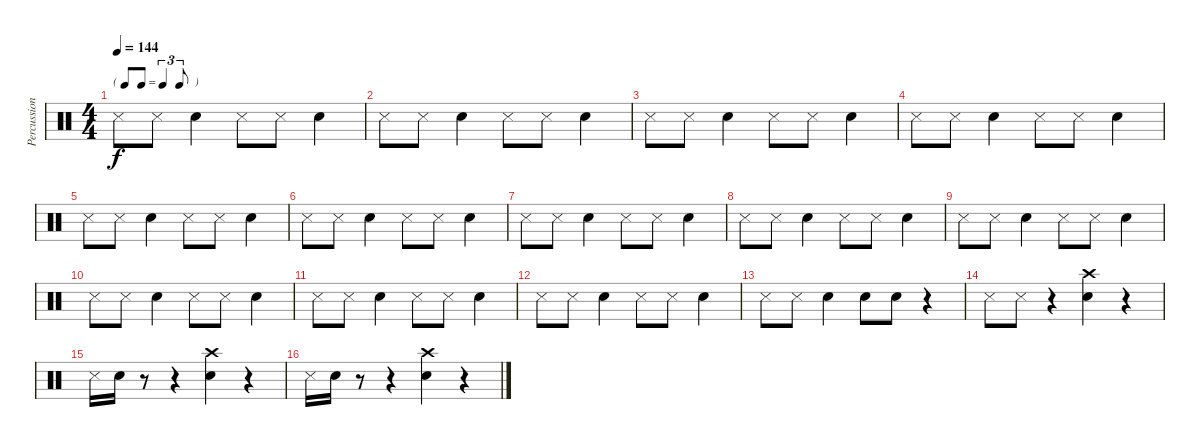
\track ("Percussions" "Percussion") {instrument percussion}
\staff {score}
\articulation defaults
\ts (4 4)
\tf triplet8th
\tempo 144
\clef neutral
\ks c "Snare (side stick) 3".8{dy f} "Snare (side stick) 3".8 "Snare (hit) 2".4 "Snare (side stick) 3".8 "Snare (side stick) 3".8 "Snare (hit) 2".4
|
"Snare (side stick) 3".8 "Snare (side stick) 3".8 "Snare (hit) 2".4 "Snare (side stick) 3".8 "Snare (side stick) 3".8 "Snare (hit) 2".4 |
"Snare (side stick) 3".8 "Snare (side stick) 3".8 "Snare (hit) 2".4 "Snare (side stick) 3".8 "Snare (side stick) 3".8 "Snare (hit) 2".4 |
"Snare (side stick) 3".8 "Snare (side stick) 3".8 "Snare (hit) 2".4 "Snare (side stick) 3".8 "Snare (side stick) 3".8 "Snare (hit) 2".4 |
"Snare (side stick) 3".8 "Snare (side stick) 3".8 "Snare (hit) 2".4 "Snare (side stick) 3".8 "Snare (side stick) 3".8 "Snare (hit) 2".4 |
"Snare (side stick) 3".8 "Snare (side stick) 3".8 "Snare (hit) 2".4 "Snare (side stick) 3".8 "Snare (side stick) 3".8 "Snare (hit) 2".4 |
"Snare (side stick) 3".8 "Snare (side stick) 3".8 "Snare (hit) 2".4 "Snare (side stick) 3".8 "Snare (side stick) 3".8 "Snare (hit) 2".4 |
"Snare (side stick) 3".8 "Snare (side stick) 3".8 "Snare (hit) 2".4 "Snare (side stick) 3".8 "Snare (side stick) 3".8 "Snare (hit) 2".4 |
"Snare (side stick) 3".8 "Snare (side stick) 3".8 "Snare (hit) 2".4 "Snare (side stick) 3".8 "Snare (side stick) 3".8 "Snare (hit) 2".4 |
"Snare (side stick) 3".8 "Snare (side stick) 3".8 "Snare (hit) 2".4 "Snare (side stick) 3".8 "Snare (side stick) 3".8 "Snare (hit) 2".4 |
"Snare (side stick) 3".8 "Snare (side stick) 3".8 "Snare (hit) 2".4 "Snare (side stick) 3".8 "Snare (side stick) 3".8 "Snare (hit) 2".4 |
"Snare (side stick) 3".8 "Snare (side stick) 3".8 "Snare (hit) 2".4 "Snare (side stick) 3".8 "Snare (side stick) 3".8 "Snare (hit) 2".4 |
"Snare (side stick) 3".8 "Snare (side stick) 3".8 "Snare (hit) 2".4 "Snare (hit) 2".8 "Snare (hit) 2".8 r.4 |
"Snare (side stick) 3".8 "Snare (side stick) 3".8 r.4 ("Snare (hit) 2" "Crash high (hit)").4 r.4 |
"Snare (side stick) 3".16 "Snare (hit) 2".16 r.8 r.4 ("Snare (hit) 2" "Crash high (hit)").4 r.4 |
"Snare (side stick) 3".16 "Snare (hit) 2".16 r.8 r.4 ("Snare (hit) 2" "Crash high (hit)").4 r.4
